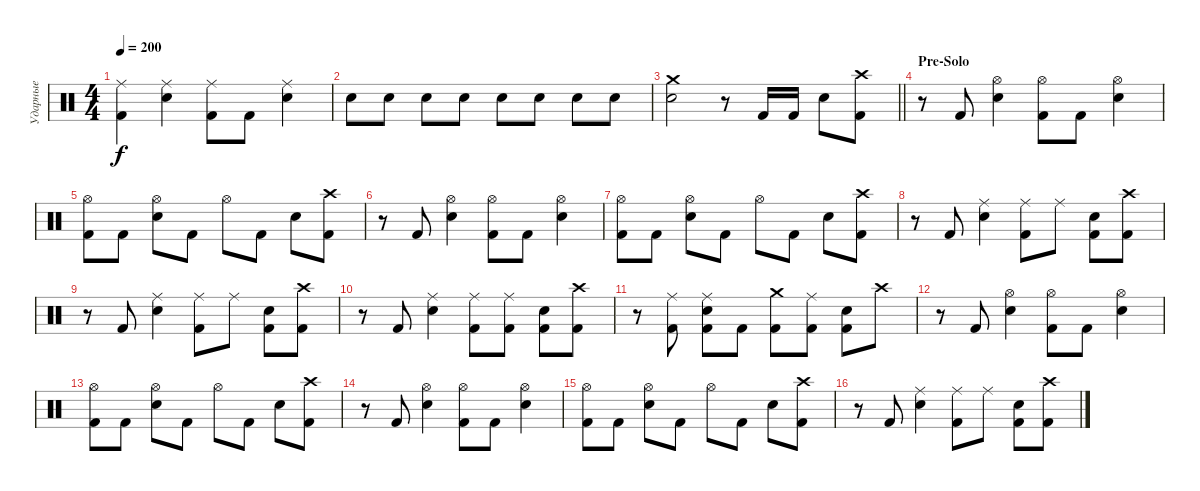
\track ("Ударные" "Ударные") {instrument percussion}
\staff {score}
\articulation defaults
\ts (4 4)
\tempo 200
\clef neutral
\ks c
("Ride (middle)" "Kick (hit) 2").4{dy f} ("Ride (middle)" "Electric Snare (hit)").4 ("Ride (middle)" "Kick (hit) 2").8 "Kick (hit) 2".8 ("Ride (middle)" "Electric Snare (hit)").4 |
"Electric Snare (hit)".8 "Electric Snare (hit)".8 "Electric Snare (hit)".8 "Electric Snare (hit)".8 "Electric Snare (hit)".8 "Electric Snare (hit)".8 "Electric Snare (hit)".8 "Electric Snare (hit)".8 |
\barLineRight lightlight
("Crash medium (hit)" "Electric Snare (hit)").2 r.8 "Kick (hit) 2".16 "Kick (hit) 2".16 "Electric Snare (hit)".8 ("Crash high (hit)" "Kick (hit) 2").8 |
\section ("" "Pre-Solo")
r.8 "Kick (hit) 2".8 ("Hi-Hat (open)" "Electric Snare (hit)").4 ("Hi-Hat (open)" "Kick (hit) 2").8 "Kick (hit) 2".8 ("Hi-Hat (open)" "Electric Snare (hit)").4 |
("Hi-Hat (open)" "Kick (hit) 2").8 "Kick (hit) 2".8 ("Hi-Hat (open)" "Electric Snare (hit)").8 "Kick (hit) 2".8 "Hi-Hat (open)".8 "Kick (hit) 2".8 "Electric Snare (hit)".8 ("Crash high (hit)" "Kick (hit) 2").8 |
r.8 "Kick (hit) 2".8 ("Hi-Hat (open)" "Electric Snare (hit)").4 ("Hi-Hat (open)" "Kick (hit) 2").8 "Kick (hit) 2".8 ("Hi-Hat (open)" "Electric Snare (hit)").4 |
("Hi-Hat (open)" "Kick (hit) 2").8 "Kick (hit) 2".8 ("Hi-Hat (open)" "Electric Snare (hit)").8 "Kick (hit) 2".8 "Hi-Hat (open)".8 "Kick (hit) 2".8 "Electric Snare (hit)".8 ("Crash high (hit)" "Kick (hit) 2").8 |
r.8 "Kick (hit) 2".8 ("Ride (middle)" "Electric Snare (hit)").4 ("Ride (middle)" "Kick (hit) 2").8 "Ride (middle)".8 ("Electric Snare (hit)" "Kick (hit) 2").8 ("Crash high (hit)" "Kick (hit) 2").8 |
r.8 "Kick (hit) 2".8 ("Ride (middle)" "Electric Snare (hit)").4 ("Ride (middle)" "Kick (hit) 2").8 "Ride (middle)".8 ("Electric Snare (hit)" "Kick (hit) 2").8 ("Crash high (hit)" "Kick (hit) 2").8 |
r.8 "Kick (hit) 2".8 ("Ride (middle)" "Electric Snare (hit)").4 ("Ride (middle)" "Kick (hit) 2").8 ("Ride (middle)" "Kick (hit) 2").8 ("Electric Snare (hit)" "Kick (hit) 2").8 ("Crash high (hit)" "Kick (hit) 2").8 |
r.8 ("Ride (middle)" "Kick (hit) 2").8 ("Ride (middle)" "Electric Snare (hit)" "Kick (hit) 2").8 "Kick (hit) 2".8 ("Crash medium (hit)" "Kick (hit) 2").8 ("Ride (middle)" "Kick (hit) 2").8 ("Electric Snare (hit)" "Kick (hit) 2").8 "Crash high (hit)".8 |
r.8 "Kick (hit) 2".8 ("Hi-Hat (open)" "Electric Snare (hit)").4 ("Hi-Hat (open)" "Kick (hit) 2").8 "Kick (hit) 2".8 ("Hi-Hat (open)" "Electric Snare (hit)").4 |
("Hi-Hat (open)" "Kick (hit) 2").8 "Kick (hit) 2".8 ("Hi-Hat (open)" "Electric Snare (hit)").8 "Kick (hit) 2".8 "Hi-Hat (open)".8 "Kick (hit) 2".8 "Electric Snare (hit)".8 ("Crash high (hit)" "Kick (hit) 2").8 |
r.8 "Kick (hit) 2".8 ("Hi-Hat (open)" "Electric Snare (hit)").4 ("Hi-Hat (open)" "Kick (hit) 2").8 "Kick (hit) 2".8 ("Hi-Hat (open)" "Electric Snare (hit)").4 |
("Hi-Hat (open)" "Kick (hit) 2").8 "Kick (hit) 2".8 ("Hi-Hat (open)" "Electric Snare (hit)").8 "Kick (hit) 2".8 "Hi-Hat (open)".8 "Kick (hit) 2".8 "Electric Snare (hit)".8 ("Crash high (hit)" "Kick (hit) 2").8 |
r.8 "Kick (hit) 2".8 ("Ride (middle)" "Electric Snare (hit)").4 ("Ride (middle)" "Kick (hit) 2").8 "Ride (middle)".8 ("Electric Snare (hit)" "Kick (hit) 2").8 ("Crash high (hit)" "Kick (hit) 2").8
